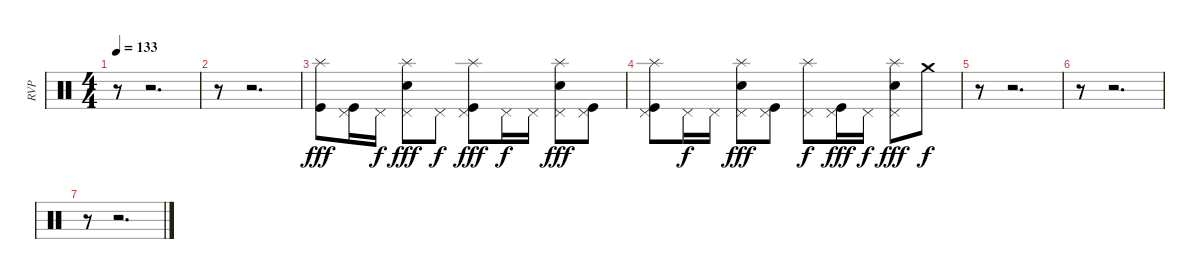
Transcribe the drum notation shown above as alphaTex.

\track ("RVP" "RVP") {instrument percussion}
\staff {score}
\articulation defaults
\ts (4 4)
\tempo 133
\clef neutral
\ks c
r.8{txt "" dy fff} r.2{d txt ""} |
r.8{txt ""} r.2{d txt ""} |
("Splash (hit)" "Kick (hit)").8{txt ""} ("Pedal Hi-Hat (hit)" "Kick (hit)").16{txt ""} "Pedal Hi-Hat (hit)".16{txt "" dy f} ("Snare (hit) 2" "Pedal Hi-Hat (hit)" "Splash (hit)").8{txt "" dy fff} "Pedal Hi-Hat (hit)".8{txt "" dy f} ("Pedal Hi-Hat (hit)" "Splash (hit)" "Kick (hit)").8{txt "" dy fff} "Pedal Hi-Hat (hit)".16{txt "" dy f} "Pedal Hi-Hat (hit)".16{txt ""} ("Snare (hit) 2" "Pedal Hi-Hat (hit)" "Splash (hit)").8{txt "" dy fff} ("Pedal Hi-Hat (hit)" "Kick (hit)").8{txt ""} |
("Pedal Hi-Hat (hit)" "Splash (hit)" "Kick (hit)").8{txt ""} "Pedal Hi-Hat (hit)".16{txt "" dy f} "Pedal Hi-Hat (hit)".16{txt ""} ("Snare (hit) 2" "Pedal Hi-Hat (hit)" "Splash (hit)").8{txt "" dy fff} ("Pedal Hi-Hat (hit)" "Kick (hit)").8{txt ""} ("Pedal Hi-Hat (hit)" "Splash (hit)").8{txt "" dy f} ("Pedal Hi-Hat (hit)" "Kick (hit)").16{txt "" dy fff} "Pedal Hi-Hat (hit)".16{txt "" dy f} ("Snare (hit) 2" "Pedal Hi-Hat (hit)" "Splash (hit)").8{txt "" dy fff} "Crash medium (hit)".8{txt "" dy f} |
r.8{txt ""} r.2{d txt ""} |
r.8{txt ""} r.2{d txt ""} |
r.8{txt ""} r.2{d txt ""}
